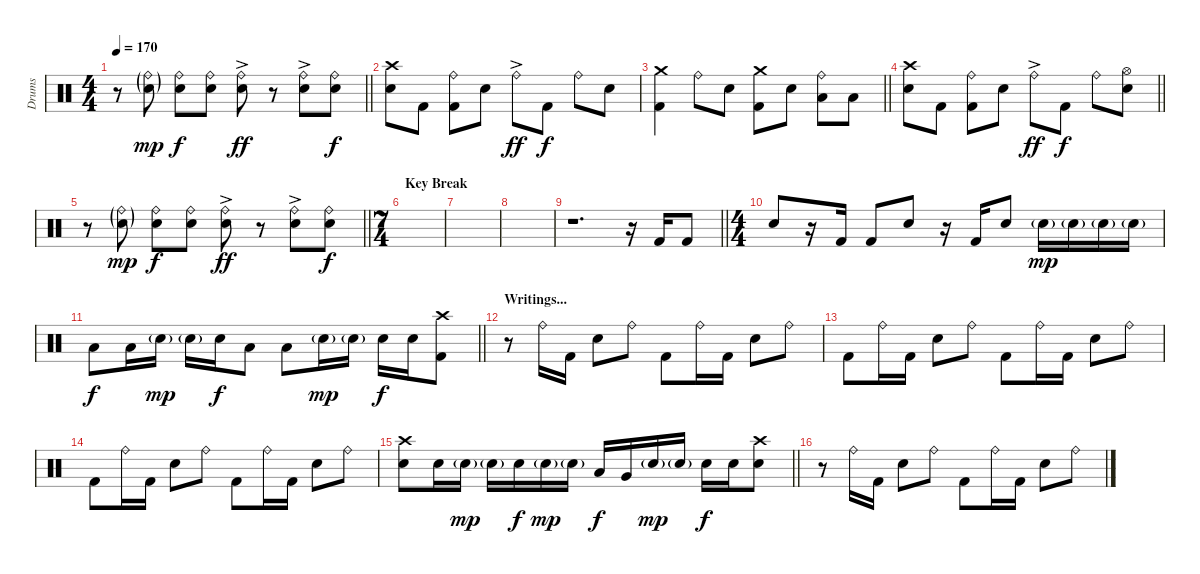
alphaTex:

\track ("Drums" "Drums") {instrument percussion}
\staff {score}
\articulation defaults
\ts (4 4)
\tempo 170
\clef neutral
\barLineRight lightlight
\ks c
r.8{dy f} ("Ride (bell)"{g} "Electric Snare (hit)"{g}).8{dy mp} ("Ride (bell)" "Electric Snare (hit)").8{dy f} ("Ride (bell)" "Electric Snare (hit)").8 ("Ride (bell)"{ac} "Electric Snare (hit)"{ac}).8{dy ff} r.8 ("Ride (bell)"{ac} "Electric Snare (hit)"{ac}).8 ("Ride (bell)" "Electric Snare (hit)").8{dy f} |
\section ("" "")
("Crash high (hit)" "Snare (hit) 2").8 "Kick (hit) 2".8 ("Ride (bell)" "Kick (hit) 2").8 "Snare (hit) 2".8 "Ride (bell)"{ac}.8{dy ff} "Kick (hit) 2".8{dy f} "Ride (bell)".8 "Snare (hit) 2".8 |
\barLineRight lightlight
("Crash medium (hit)" "Kick (hit) 2").4 "Ride (bell)".8 "Snare (hit) 2".8 ("Crash medium (hit)" "Kick (hit) 2").8 "Electric Snare (hit)".8 ("Ride (bell)" "Low Tom (hit)").8 "Low Tom (hit)".8 |
\barLineRight lightlight
("Crash high (hit)" "Snare (hit) 2").8 "Kick (hit) 2".8 ("Ride (bell)" "Kick (hit) 2").8 "Snare (hit) 2".8 "Ride (bell)"{ac}.8{dy ff} "Kick (hit) 2".8{dy f} "Ride (bell)".8 ("Hi-Hat (open)" "Snare (hit) 2").8 |
\barLineRight lightlight
r.8 ("Ride (bell)"{g} "Electric Snare (hit)"{g}).8{dy mp} ("Ride (bell)" "Electric Snare (hit)").8{dy f} ("Ride (bell)" "Electric Snare (hit)").8 ("Ride (bell)"{ac} "Electric Snare (hit)"{ac}).8{dy ff} r.8 ("Ride (bell)"{ac} "Electric Snare (hit)"{ac}).8 ("Ride (bell)" "Electric Snare (hit)").8{dy f} |
\ts (7 4)
\section ("" "Key Break")
|
|
|
\barLineRight lightlight
r.1{d} r.16 "Kick (hit) 2".16 "Kick (hit) 2".8 |
\ts (4 4)
\section ("" "")
"Snare (hit) 2".8 r.16 "Kick (hit) 2".16 "Kick (hit) 2".8 "Snare (hit) 2".8 r.16 "Kick (hit) 2".16 "Snare (hit) 2".8 "Electric Snare (hit)"{g}.16{dy mp} "Electric Snare (hit)"{g}.16 "Electric Snare (hit)"{g}.16 "Electric Snare (hit)"{g}.16 |
\barLineRight lightlight "Low Tom (hit)".8{dy f} "Low Tom (hit)".16 "Electric Snare (hit)"{g}.16{dy mp} "Electric Snare (hit)"{g}.16 "Snare (hit) 2".16{dy f} "Low Tom (hit)".8 "Low Tom (hit)".8 "Electric Snare (hit)"{g}.16{dy mp} "Electric Snare (hit)"{g}.16 "Electric Snare (hit)".16{dy f} "Electric Snare (hit)".16
("Crash high (hit)" "Kick (hit) 2").8 |
\section ("" "Writings...")
r.8 "Ride (bell)".16 "Kick (hit) 2".16 "Snare (hit) 2".8 "Ride (bell)".8 "Kick (hit) 2".8 "Ride (bell)".16 "Kick (hit) 2".16 "Snare (hit) 2".8 "Ride (bell)".8 |
"Kick (hit) 2".8 "Ride (bell)".16 "Kick (hit) 2".16 "Snare (hit) 2".8 "Ride (bell)".8 "Kick (hit) 2".8 "Ride (bell)".16 "Kick (hit) 2".16 "Snare (hit) 2".8 "Ride (bell)".8 |
"Kick (hit) 2".8 "Ride (bell)".16 "Kick (hit) 2".16 "Snare (hit) 2".8 "Ride (bell)".8 "Kick (hit) 2".8 "Ride (bell)".16 "Kick (hit) 2".16 "Snare (hit) 2".8 "Ride (bell)".8 |
\barLineRight lightlight
("Crash high (hit)" "Snare (hit) 2").8 "Snare (hit) 2".16 "Electric Snare (hit)"{g}.16{dy mp} "Electric Snare (hit)"{g}.16 "Snare (hit) 2".16{dy f} "Electric Snare (hit)"{g}.16{dy mp} "Electric Snare (hit)"{g}.16 "Low Tom (hit)".16{dy f} "Very Low Tom (hit)".16 "Electric Snare (hit)"{g}.16{dy mp} "Electric Snare (hit)"{g}.16 "Snare (hit) 2".16{dy f} "Snare (hit) 2".16 ("Crash high (hit)" "Snare (hit) 2").8 |
\section ("" "")
r.8 "Ride (bell)".16 "Kick (hit) 2".16 "Snare (hit) 2".8 "Ride (bell)".8 "Kick (hit) 2".8 "Ride (bell)".16 "Kick (hit) 2".16 "Snare (hit) 2".8 "Ride (bell)".8
